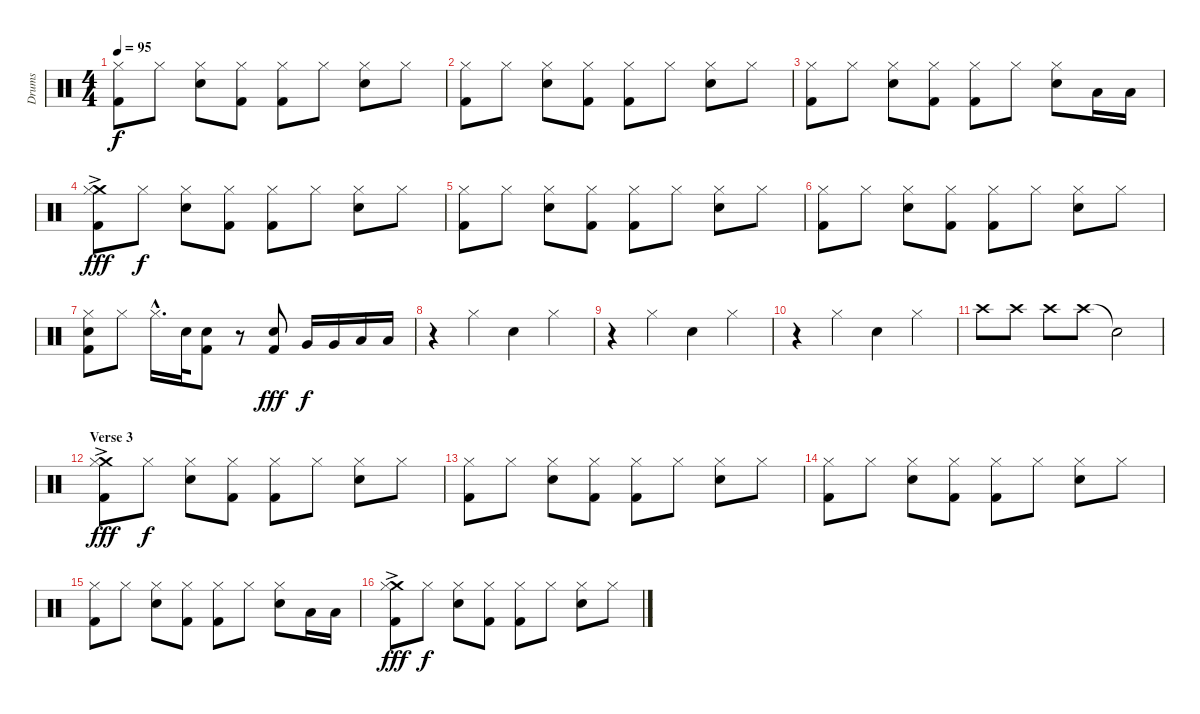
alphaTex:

\track ("Drums" "Drums") {instrument percussion}
\staff {score}
\articulation defaults
\ts (4 4)
\tempo 95
\clef neutral
\ks c
("Hi-Hat (closed)" "Kick (hit) 2").8{dy f} "Hi-Hat (closed)".8 ("Hi-Hat (closed)" "Snare (hit) 2").8 ("Hi-Hat (closed)" "Kick (hit) 2").8 ("Hi-Hat (closed)" "Kick (hit) 2").8 "Hi-Hat (closed)".8 ("Hi-Hat (closed)" "Snare (hit) 2").8 "Hi-Hat (closed)".8 |
("Hi-Hat (closed)" "Kick (hit) 2").8 "Hi-Hat (closed)".8 ("Hi-Hat (closed)" "Snare (hit) 2").8 ("Hi-Hat (closed)" "Kick (hit) 2").8 ("Hi-Hat (closed)" "Kick (hit) 2").8 "Hi-Hat (closed)".8 ("Hi-Hat (closed)" "Snare (hit) 2").8 "Hi-Hat (closed)".8 |
("Hi-Hat (closed)" "Kick (hit) 2").8 "Hi-Hat (closed)".8 ("Hi-Hat (closed)" "Snare (hit) 2").8 ("Hi-Hat (closed)" "Kick (hit) 2").8 ("Hi-Hat (closed)" "Kick (hit) 2").8 "Hi-Hat (closed)".8 ("Hi-Hat (closed)" "Snare (hit) 2").8 "Low Floor Tom (hit)".16 "Low Floor Tom (hit)".16 |
("Crash medium (hit)"{ac} "Hi-Hat (closed)" "Kick (hit) 2").8{dy fff} "Hi-Hat (closed)".8{dy f} ("Hi-Hat (closed)" "Snare (hit) 2").8 ("Hi-Hat (closed)" "Kick (hit) 2").8 ("Hi-Hat (closed)" "Kick (hit) 2").8 "Hi-Hat (closed)".8 ("Hi-Hat (closed)" "Snare (hit) 2").8 "Hi-Hat (closed)".8 |
("Hi-Hat (closed)" "Kick (hit) 2").8 "Hi-Hat (closed)".8 ("Hi-Hat (closed)" "Snare (hit) 2").8 ("Hi-Hat (closed)" "Kick (hit) 2").8 ("Hi-Hat (closed)" "Kick (hit) 2").8 "Hi-Hat (closed)".8 ("Hi-Hat (closed)" "Snare (hit) 2").8 "Hi-Hat (closed)".8 |
("Hi-Hat (closed)" "Kick (hit) 2").8 "Hi-Hat (closed)".8 ("Hi-Hat (closed)" "Snare (hit) 2").8 ("Hi-Hat (closed)" "Kick (hit) 2").8 ("Hi-Hat (closed)" "Kick (hit) 2").8 "Hi-Hat (closed)".8 ("Hi-Hat (closed)" "Snare (hit) 2").8 "Hi-Hat (closed)".8 |
("Hi-Hat (closed)" "Snare (hit) 2" "Kick (hit) 2").8 "Hi-Hat (closed)".8 "Hi-Hat (closed)"{hac}.16{d} "Snare (hit) 2".32 ("Snare (hit) 2" "Kick (hit) 2").8 r.8 ("Snare (hit) 2" "Kick (hit) 2").8{dy fff} "Very Low Tom (hit)".16{dy f} "Very Low Tom (hit)".16 "Low Floor Tom (hit)".16 "Low Floor Tom (hit)".16 |
r.4 "Hi-Hat (closed)".4 "Snare (hit) 2".4 "Hi-Hat (closed)".4 |
r.4 "Hi-Hat (closed)".4 "Snare (hit) 2".4 "Hi-Hat (closed)".4 |
r.4 "Hi-Hat (closed)".4 "Snare (hit) 2".4 "Hi-Hat (closed)".4 |
"Crash high (hit)".8 "Crash high (hit)".8 "Crash high (hit)".8 "Crash high (hit)".8 "Snare (hit)"{t}.2 |
\section ("" "Verse 3")
("Crash medium (hit)"{ac} "Hi-Hat (closed)" "Kick (hit) 2").8{dy fff} "Hi-Hat (closed)".8{dy f} ("Hi-Hat (closed)" "Snare (hit) 2").8 ("Hi-Hat (closed)" "Kick (hit) 2").8 ("Hi-Hat (closed)" "Kick (hit) 2").8 "Hi-Hat (closed)".8 ("Hi-Hat (closed)" "Snare (hit) 2").8 "Hi-Hat (closed)".8 |
("Hi-Hat (closed)" "Kick (hit) 2").8 "Hi-Hat (closed)".8 ("Hi-Hat (closed)" "Snare (hit) 2").8 ("Hi-Hat (closed)" "Kick (hit) 2").8 ("Hi-Hat (closed)" "Kick (hit) 2").8 "Hi-Hat (closed)".8 ("Hi-Hat (closed)" "Snare (hit) 2").8 "Hi-Hat (closed)".8 |
("Hi-Hat (closed)" "Kick (hit) 2").8 "Hi-Hat (closed)".8 ("Hi-Hat (closed)" "Snare (hit) 2").8 ("Hi-Hat (closed)" "Kick (hit) 2").8 ("Hi-Hat (closed)" "Kick (hit) 2").8 "Hi-Hat (closed)".8 ("Hi-Hat (closed)" "Snare (hit) 2").8 "Hi-Hat (closed)".8 |
("Hi-Hat (closed)" "Kick (hit) 2").8 "Hi-Hat (closed)".8 ("Hi-Hat (closed)" "Snare (hit) 2").8 ("Hi-Hat (closed)" "Kick (hit) 2").8 ("Hi-Hat (closed)" "Kick (hit) 2").8 "Hi-Hat (closed)".8 ("Hi-Hat (closed)" "Snare (hit) 2").8 "Low Floor Tom (hit)".16 "Low Floor Tom (hit)".16 |
("Crash medium (hit)"{ac} "Hi-Hat (closed)" "Kick (hit) 2").8{dy fff} "Hi-Hat (closed)".8{dy f} ("Hi-Hat (closed)" "Snare (hit) 2").8 ("Hi-Hat (closed)" "Kick (hit) 2").8 ("Hi-Hat (closed)" "Kick (hit) 2").8 "Hi-Hat (closed)".8 ("Hi-Hat (closed)" "Snare (hit) 2").8 "Hi-Hat (closed)".8
